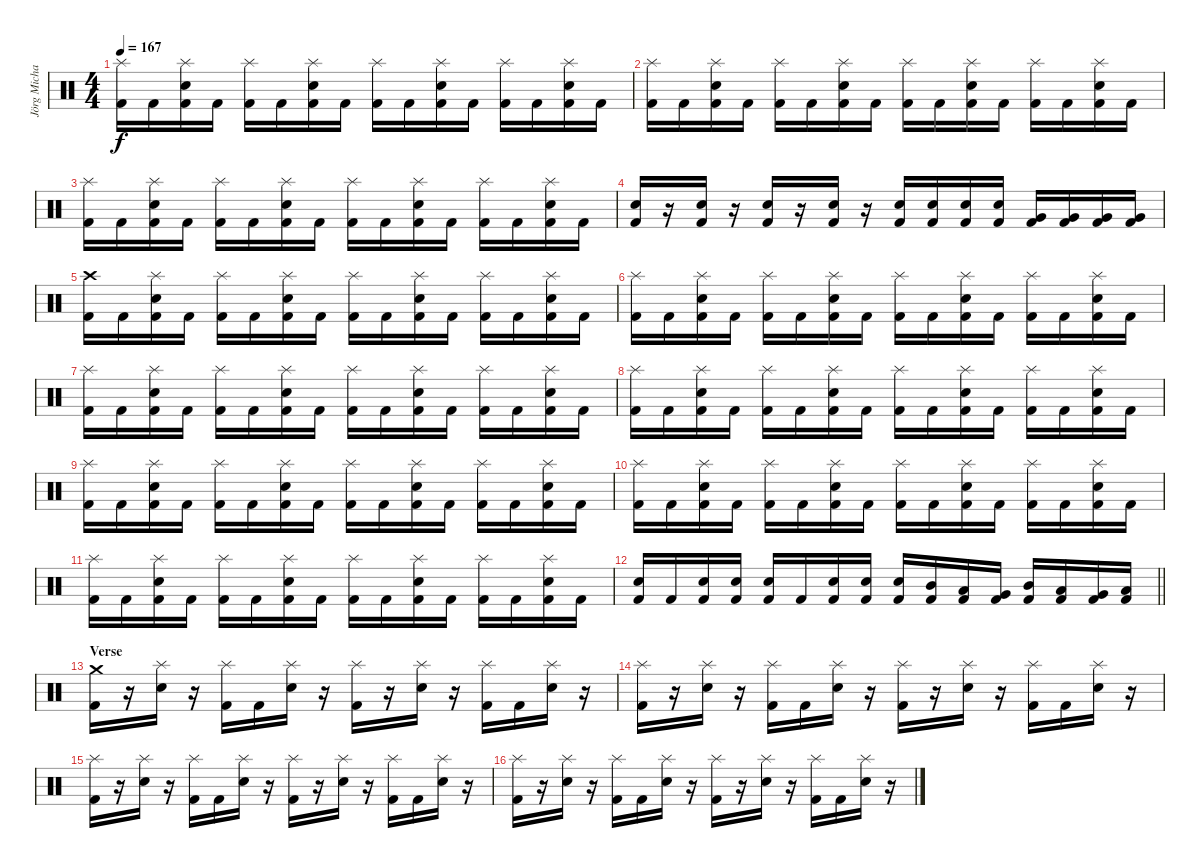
\track ("Jörg Michael" "Jörg Micha") {instrument percussion}
\staff {score}
\articulation defaults
\ts (4 4)
\tempo 167
\clef neutral
\ks c
("Splash (hit)" "Kick (hit) 2").16{dy f} "Kick (hit) 2".16 ("Splash (hit)" "Snare (hit) 2" "Kick (hit) 2").16 "Kick (hit) 2".16 ("Splash (hit)" "Kick (hit) 2").16 "Kick (hit) 2".16 ("Splash (hit)" "Snare (hit) 2" "Kick (hit) 2").16 "Kick (hit) 2".16 ("Splash (hit)" "Kick (hit) 2").16 "Kick (hit) 2".16 ("Splash (hit)" "Snare (hit) 2" "Kick (hit) 2").16 "Kick (hit) 2".16 ("Splash (hit)" "Kick (hit) 2").16 "Kick (hit) 2".16 ("Splash (hit)" "Snare (hit) 2" "Kick (hit) 2").16 "Kick (hit) 2".16 |
("Splash (hit)" "Kick (hit) 2").16 "Kick (hit) 2".16 ("Splash (hit)" "Snare (hit) 2" "Kick (hit) 2").16 "Kick (hit) 2".16 ("Splash (hit)" "Kick (hit) 2").16 "Kick (hit) 2".16 ("Splash (hit)" "Snare (hit) 2" "Kick (hit) 2").16 "Kick (hit) 2".16 ("Splash (hit)" "Kick (hit) 2").16 "Kick (hit) 2".16 ("Splash (hit)" "Snare (hit) 2" "Kick (hit) 2").16 "Kick (hit) 2".16 ("Splash (hit)" "Kick (hit) 2").16 "Kick (hit) 2".16 ("Splash (hit)" "Snare (hit) 2" "Kick (hit) 2").16 "Kick (hit) 2".16 |
("Splash (hit)" "Kick (hit) 2").16 "Kick (hit) 2".16 ("Splash (hit)" "Snare (hit) 2" "Kick (hit) 2").16 "Kick (hit) 2".16 ("Splash (hit)" "Kick (hit) 2").16 "Kick (hit) 2".16 ("Splash (hit)" "Snare (hit) 2" "Kick (hit) 2").16 "Kick (hit) 2".16 ("Splash (hit)" "Kick (hit) 2").16 "Kick (hit) 2".16 ("Splash (hit)" "Snare (hit) 2" "Kick (hit) 2").16 "Kick (hit) 2".16 ("Splash (hit)" "Kick (hit) 2").16 "Kick (hit) 2".16 ("Splash (hit)" "Snare (hit) 2" "Kick (hit) 2").16 "Kick (hit) 2".16 |
("Snare (hit) 2" "Kick (hit) 2").16 r.16 ("Snare (hit) 2" "Kick (hit) 2").16 r.16 ("Snare (hit) 2" "Kick (hit) 2").16 r.16 ("Snare (hit) 2" "Kick (hit) 2").16 r.16 ("Snare (hit) 2" "Kick (hit) 2").16 ("Snare (hit) 2" "Kick (hit) 2").16 ("Snare (hit) 2" "Kick (hit) 2").16 ("Snare (hit) 2" "Kick (hit) 2").16 ("Very Low Tom (hit)" "Kick (hit) 2").16 ("Very Low Tom (hit)" "Kick (hit) 2").16 ("Very Low Tom (hit)" "Kick (hit) 2").16 ("Very Low Tom (hit)" "Kick (hit) 2").16 |
("Crash high (hit)" "Kick (hit) 2").16 "Kick (hit) 2".16 ("Splash (hit)" "Snare (hit) 2" "Kick (hit) 2").16 "Kick (hit) 2".16 ("Splash (hit)" "Kick (hit) 2").16 "Kick (hit) 2".16 ("Splash (hit)" "Snare (hit) 2" "Kick (hit) 2").16 "Kick (hit) 2".16 ("Splash (hit)" "Kick (hit) 2").16 "Kick (hit) 2".16 ("Splash (hit)" "Snare (hit) 2" "Kick (hit) 2").16 "Kick (hit) 2".16 ("Splash (hit)" "Kick (hit) 2").16 "Kick (hit) 2".16 ("Splash (hit)" "Snare (hit) 2" "Kick (hit) 2").16 "Kick (hit) 2".16 |
("Splash (hit)" "Kick (hit) 2").16 "Kick (hit) 2".16 ("Splash (hit)" "Snare (hit) 2" "Kick (hit) 2").16 "Kick (hit) 2".16 ("Splash (hit)" "Kick (hit) 2").16 "Kick (hit) 2".16 ("Splash (hit)" "Snare (hit) 2" "Kick (hit) 2").16 "Kick (hit) 2".16 ("Splash (hit)" "Kick (hit) 2").16 "Kick (hit) 2".16 ("Splash (hit)" "Snare (hit) 2" "Kick (hit) 2").16 "Kick (hit) 2".16 ("Splash (hit)" "Kick (hit) 2").16 "Kick (hit) 2".16 ("Splash (hit)" "Snare (hit) 2" "Kick (hit) 2").16 "Kick (hit) 2".16 |
("Splash (hit)" "Kick (hit) 2").16 "Kick (hit) 2".16 ("Splash (hit)" "Snare (hit) 2" "Kick (hit) 2").16 "Kick (hit) 2".16 ("Splash (hit)" "Kick (hit) 2").16 "Kick (hit) 2".16 ("Splash (hit)" "Snare (hit) 2" "Kick (hit) 2").16 "Kick (hit) 2".16 ("Splash (hit)" "Kick (hit) 2").16 "Kick (hit) 2".16 ("Splash (hit)" "Snare (hit) 2" "Kick (hit) 2").16 "Kick (hit) 2".16 ("Splash (hit)" "Kick (hit) 2").16 "Kick (hit) 2".16 ("Splash (hit)" "Snare (hit) 2" "Kick (hit) 2").16 "Kick (hit) 2".16 |
("Splash (hit)" "Kick (hit) 2").16 "Kick (hit) 2".16 ("Splash (hit)" "Snare (hit) 2" "Kick (hit) 2").16 "Kick (hit) 2".16 ("Splash (hit)" "Kick (hit) 2").16 "Kick (hit) 2".16 ("Splash (hit)" "Snare (hit) 2" "Kick (hit) 2").16 "Kick (hit) 2".16 ("Splash (hit)" "Kick (hit) 2").16 "Kick (hit) 2".16 ("Splash (hit)" "Snare (hit) 2" "Kick (hit) 2").16 "Kick (hit) 2".16 ("Splash (hit)" "Kick (hit) 2").16 "Kick (hit) 2".16 ("Splash (hit)" "Snare (hit) 2" "Kick (hit) 2").16 "Kick (hit) 2".16 |
("Splash (hit)" "Kick (hit) 2").16 "Kick (hit) 2".16 ("Splash (hit)" "Snare (hit) 2" "Kick (hit) 2").16 "Kick (hit) 2".16 ("Splash (hit)" "Kick (hit) 2").16 "Kick (hit) 2".16 ("Splash (hit)" "Snare (hit) 2" "Kick (hit) 2").16 "Kick (hit) 2".16 ("Splash (hit)" "Kick (hit) 2").16 "Kick (hit) 2".16 ("Splash (hit)" "Snare (hit) 2" "Kick (hit) 2").16 "Kick (hit) 2".16 ("Splash (hit)" "Kick (hit) 2").16 "Kick (hit) 2".16 ("Splash (hit)" "Snare (hit) 2" "Kick (hit) 2").16 "Kick (hit) 2".16 |
("Splash (hit)" "Kick (hit) 2").16 "Kick (hit) 2".16 ("Splash (hit)" "Snare (hit) 2" "Kick (hit) 2").16 "Kick (hit) 2".16 ("Splash (hit)" "Kick (hit) 2").16 "Kick (hit) 2".16 ("Splash (hit)" "Snare (hit) 2" "Kick (hit) 2").16 "Kick (hit) 2".16 ("Splash (hit)" "Kick (hit) 2").16 "Kick (hit) 2".16 ("Splash (hit)" "Snare (hit) 2" "Kick (hit) 2").16 "Kick (hit) 2".16 ("Splash (hit)" "Kick (hit) 2").16 "Kick (hit) 2".16 ("Splash (hit)" "Snare (hit) 2" "Kick (hit) 2").16 "Kick (hit) 2".16 |
("Splash (hit)" "Kick (hit) 2").16 "Kick (hit) 2".16 ("Splash (hit)" "Snare (hit) 2" "Kick (hit) 2").16 "Kick (hit) 2".16 ("Splash (hit)" "Kick (hit) 2").16 "Kick (hit) 2".16 ("Splash (hit)" "Snare (hit) 2" "Kick (hit) 2").16 "Kick (hit) 2".16 ("Splash (hit)" "Kick (hit) 2").16 "Kick (hit) 2".16 ("Splash (hit)" "Snare (hit) 2" "Kick (hit) 2").16 "Kick (hit) 2".16 ("Splash (hit)" "Kick (hit) 2").16 "Kick (hit) 2".16 ("Splash (hit)" "Snare (hit) 2" "Kick (hit) 2").16 "Kick (hit) 2".16 |
\barLineRight lightlight
("Snare (hit) 2" "Kick (hit) 2").16 "Kick (hit) 2".16 ("Snare (hit) 2" "Kick (hit) 2").16 ("Snare (hit) 2" "Kick (hit) 2").16 ("Snare (hit) 2" "Kick (hit) 2").16 "Kick (hit) 2".16 ("Snare (hit) 2" "Kick (hit) 2").16 ("Snare (hit) 2" "Kick (hit) 2").16 ("Snare (hit) 2" "Kick (hit) 2").16 ("Mid Tom (hit)" "Kick (hit) 2").16 ("Low Tom (hit)" "Kick (hit) 2").16 ("Very Low Tom (hit)" "Kick (hit) 2").16 ("Mid Tom (hit)" "Kick (hit) 2").16 ("Low Tom (hit)" "Kick (hit) 2").16 ("Very Low Tom (hit)" "Kick (hit) 2").16 ("Low Floor Tom (hit)" "Kick (hit) 2").16 |
\section ("" "Verse")
("Crash medium (hit)" "Kick (hit) 2").16 r.16 ("Splash (hit)" "Snare (hit) 2").16 r.16 ("Splash (hit)" "Kick (hit) 2").16 "Kick (hit) 2".16 ("Splash (hit)" "Snare (hit) 2").16 r.16 ("Splash (hit)" "Kick (hit) 2").16 r.16 ("Splash (hit)" "Snare (hit) 2").16 r.16 ("Splash (hit)" "Kick (hit) 2").16 "Kick (hit) 2".16 ("Splash (hit)" "Snare (hit) 2").16 r.16 |
("Splash (hit)" "Kick (hit) 2").16 r.16 ("Splash (hit)" "Snare (hit) 2").16 r.16 ("Splash (hit)" "Kick (hit) 2").16 "Kick (hit) 2".16 ("Splash (hit)" "Snare (hit) 2").16 r.16 ("Splash (hit)" "Kick (hit) 2").16 r.16 ("Splash (hit)" "Snare (hit) 2").16 r.16 ("Splash (hit)" "Kick (hit) 2").16 "Kick (hit) 2".16 ("Splash (hit)" "Snare (hit) 2").16 r.16 |
("Splash (hit)" "Kick (hit) 2").16 r.16 ("Splash (hit)" "Snare (hit) 2").16 r.16 ("Splash (hit)" "Kick (hit) 2").16 "Kick (hit) 2".16 ("Splash (hit)" "Snare (hit) 2").16 r.16 ("Splash (hit)" "Kick (hit) 2").16 r.16 ("Splash (hit)" "Snare (hit) 2").16 r.16 ("Splash (hit)" "Kick (hit) 2").16 "Kick (hit) 2".16 ("Splash (hit)" "Snare (hit) 2").16 r.16 |
("Splash (hit)" "Kick (hit) 2").16 r.16 ("Splash (hit)" "Snare (hit) 2").16 r.16 ("Splash (hit)" "Kick (hit) 2").16 "Kick (hit) 2".16 ("Splash (hit)" "Snare (hit) 2").16 r.16 ("Splash (hit)" "Kick (hit) 2").16 r.16 ("Splash (hit)" "Snare (hit) 2").16 r.16 ("Splash (hit)" "Kick (hit) 2").16 "Kick (hit) 2".16 ("Splash (hit)" "Snare (hit) 2").16 r.16
